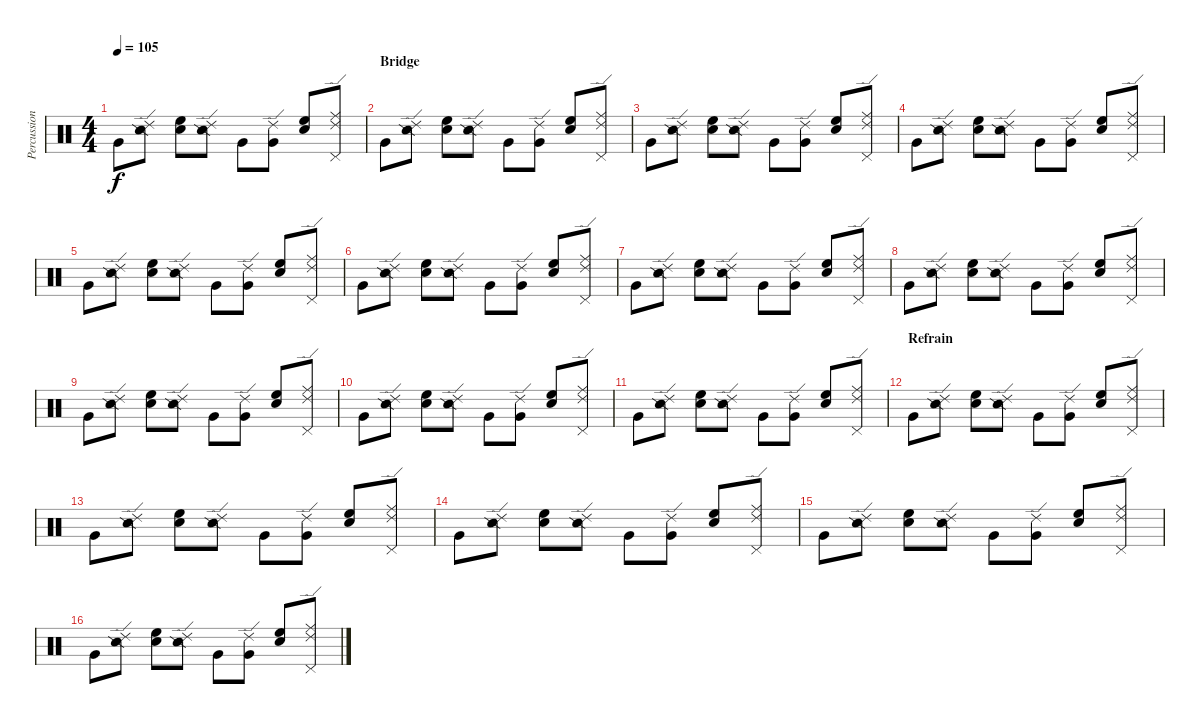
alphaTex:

\track ("Percussions" "Percussion") {instrument percussion}
\staff {score}
\articulation defaults
\ts (4 4)
\tempo 105
\clef neutral
\ks c "Very Low Tom (hit)".8{dy f}
("Ride (edge) 2" "Snare (side stick) 2").8 ("Hand Clap (hit)" "High Floor Tom (hit)").8 ("Ride (edge) 2" "Snare (side stick) 2").8 "Very Low Tom (hit)".8 ("Ride (edge) 2" "Very Low Tom (hit)").8 ("Hand Clap (hit)" "High Floor Tom (hit)").8 ("Ride (edge) 2" "Ride (middle)" "Pedal Hi-Hat (hit)").8 |
\section ("" "Bridge")
"Very Low Tom (hit)".8 ("Ride (edge) 2" "Snare (side stick) 2").8 ("Hand Clap (hit)" "High Floor Tom (hit)").8 ("Ride (edge) 2" "Snare (side stick) 2").8 "Very Low Tom (hit)".8 ("Ride (edge) 2" "Very Low Tom (hit)").8 ("Hand Clap (hit)" "High Floor Tom (hit)").8 ("Ride (edge) 2" "Ride (middle)" "Pedal Hi-Hat (hit)").8 |
"Very Low Tom (hit)".8 ("Ride (edge) 2" "Snare (side stick) 2").8 ("Hand Clap (hit)" "High Floor Tom (hit)").8 ("Ride (edge) 2" "Snare (side stick) 2").8 "Very Low Tom (hit)".8 ("Ride (edge) 2" "Very Low Tom (hit)").8 ("Hand Clap (hit)" "High Floor Tom (hit)").8 ("Ride (edge) 2" "Ride (middle)" "Pedal Hi-Hat (hit)").8 |
"Very Low Tom (hit)".8 ("Ride (edge) 2" "Snare (side stick) 2").8 ("Hand Clap (hit)" "High Floor Tom (hit)").8 ("Ride (edge) 2" "Snare (side stick) 2").8 "Very Low Tom (hit)".8 ("Ride (edge) 2" "Very Low Tom (hit)").8 ("Hand Clap (hit)" "High Floor Tom (hit)").8 ("Ride (edge) 2" "Ride (middle)" "Pedal Hi-Hat (hit)").8 |
"Very Low Tom (hit)".8 ("Ride (edge) 2" "Snare (side stick) 2").8 ("Hand Clap (hit)" "High Floor Tom (hit)").8 ("Ride (edge) 2" "Snare (side stick) 2").8 "Very Low Tom (hit)".8 ("Ride (edge) 2" "Very Low Tom (hit)").8 ("Hand Clap (hit)" "High Floor Tom (hit)").8 ("Ride (edge) 2" "Ride (middle)" "Pedal Hi-Hat (hit)").8 |
"Very Low Tom (hit)".8 ("Ride (edge) 2" "Snare (side stick) 2").8 ("Hand Clap (hit)" "High Floor Tom (hit)").8 ("Ride (edge) 2" "Snare (side stick) 2").8 "Very Low Tom (hit)".8 ("Ride (edge) 2" "Very Low Tom (hit)").8 ("Hand Clap (hit)" "High Floor Tom (hit)").8 ("Ride (edge) 2" "Ride (middle)" "Pedal Hi-Hat (hit)").8 |
"Very Low Tom (hit)".8 ("Ride (edge) 2" "Snare (side stick) 2").8 ("Hand Clap (hit)" "High Floor Tom (hit)").8 ("Ride (edge) 2" "Snare (side stick) 2").8 "Very Low Tom (hit)".8 ("Ride (edge) 2" "Very Low Tom (hit)").8 ("Hand Clap (hit)" "High Floor Tom (hit)").8 ("Ride (edge) 2" "Ride (middle)" "Pedal Hi-Hat (hit)").8 |
"Very Low Tom (hit)".8 ("Ride (edge) 2" "Snare (side stick) 2").8 ("Hand Clap (hit)" "High Floor Tom (hit)").8 ("Ride (edge) 2" "Snare (side stick) 2").8 "Very Low Tom (hit)".8 ("Ride (edge) 2" "Very Low Tom (hit)").8 ("Hand Clap (hit)" "High Floor Tom (hit)").8 ("Ride (edge) 2" "Ride (middle)" "Pedal Hi-Hat (hit)").8 |
"Very Low Tom (hit)".8 ("Ride (edge) 2" "Snare (side stick) 2").8 ("Hand Clap (hit)" "High Floor Tom (hit)").8 ("Ride (edge) 2" "Snare (side stick) 2").8 "Very Low Tom (hit)".8 ("Ride (edge) 2" "Very Low Tom (hit)").8 ("Hand Clap (hit)" "High Floor Tom (hit)").8 ("Ride (edge) 2" "Ride (middle)" "Pedal Hi-Hat (hit)").8 |
"Very Low Tom (hit)".8 ("Ride (edge) 2" "Snare (side stick) 2").8 ("Hand Clap (hit)" "High Floor Tom (hit)").8 ("Ride (edge) 2" "Snare (side stick) 2").8 "Very Low Tom (hit)".8 ("Ride (edge) 2" "Very Low Tom (hit)").8 ("Hand Clap (hit)" "High Floor Tom (hit)").8 ("Ride (edge) 2" "Ride (middle)" "Pedal Hi-Hat (hit)").8 |
"Very Low Tom (hit)".8 ("Ride (edge) 2" "Snare (side stick) 2").8 ("Hand Clap (hit)" "High Floor Tom (hit)").8 ("Ride (edge) 2" "Snare (side stick) 2").8 "Very Low Tom (hit)".8 ("Ride (edge) 2" "Very Low Tom (hit)").8 ("Hand Clap (hit)" "High Floor Tom (hit)").8 ("Ride (edge) 2" "Ride (middle)" "Pedal Hi-Hat (hit)").8 |
\section ("" "Refrain")
"Very Low Tom (hit)".8 ("Ride (edge) 2" "Snare (side stick) 2").8 ("Hand Clap (hit)" "High Floor Tom (hit)").8 ("Ride (edge) 2" "Snare (side stick) 2").8 "Very Low Tom (hit)".8 ("Ride (edge) 2" "Very Low Tom (hit)").8 ("Hand Clap (hit)" "High Floor Tom (hit)").8 ("Ride (edge) 2" "Ride (middle)" "Pedal Hi-Hat (hit)").8 |
"Very Low Tom (hit)".8 ("Ride (edge) 2" "Snare (side stick) 2").8 ("Hand Clap (hit)" "High Floor Tom (hit)").8 ("Ride (edge) 2" "Snare (side stick) 2").8 "Very Low Tom (hit)".8 ("Ride (edge) 2" "Very Low Tom (hit)").8 ("Hand Clap (hit)" "High Floor Tom (hit)").8 ("Ride (edge) 2" "Ride (middle)" "Pedal Hi-Hat (hit)").8 |
"Very Low Tom (hit)".8 ("Ride (edge) 2" "Snare (side stick) 2").8 ("Hand Clap (hit)" "High Floor Tom (hit)").8 ("Ride (edge) 2" "Snare (side stick) 2").8 "Very Low Tom (hit)".8 ("Ride (edge) 2" "Very Low Tom (hit)").8 ("Hand Clap (hit)" "High Floor Tom (hit)").8 ("Ride (edge) 2" "Ride (middle)" "Pedal Hi-Hat (hit)").8 |
"Very Low Tom (hit)".8 ("Ride (edge) 2" "Snare (side stick) 2").8 ("Hand Clap (hit)" "High Floor Tom (hit)").8 ("Ride (edge) 2" "Snare (side stick) 2").8 "Very Low Tom (hit)".8 ("Ride (edge) 2" "Very Low Tom (hit)").8 ("Hand Clap (hit)" "High Floor Tom (hit)").8 ("Ride (edge) 2" "Ride (middle)" "Pedal Hi-Hat (hit)").8 |
"Very Low Tom (hit)".8 ("Ride (edge) 2" "Snare (side stick) 2").8 ("Hand Clap (hit)" "High Floor Tom (hit)").8 ("Ride (edge) 2" "Snare (side stick) 2").8 "Very Low Tom (hit)".8 ("Ride (edge) 2" "Very Low Tom (hit)").8 ("Hand Clap (hit)" "High Floor Tom (hit)").8 ("Ride (edge) 2" "Ride (middle)" "Pedal Hi-Hat (hit)").8
